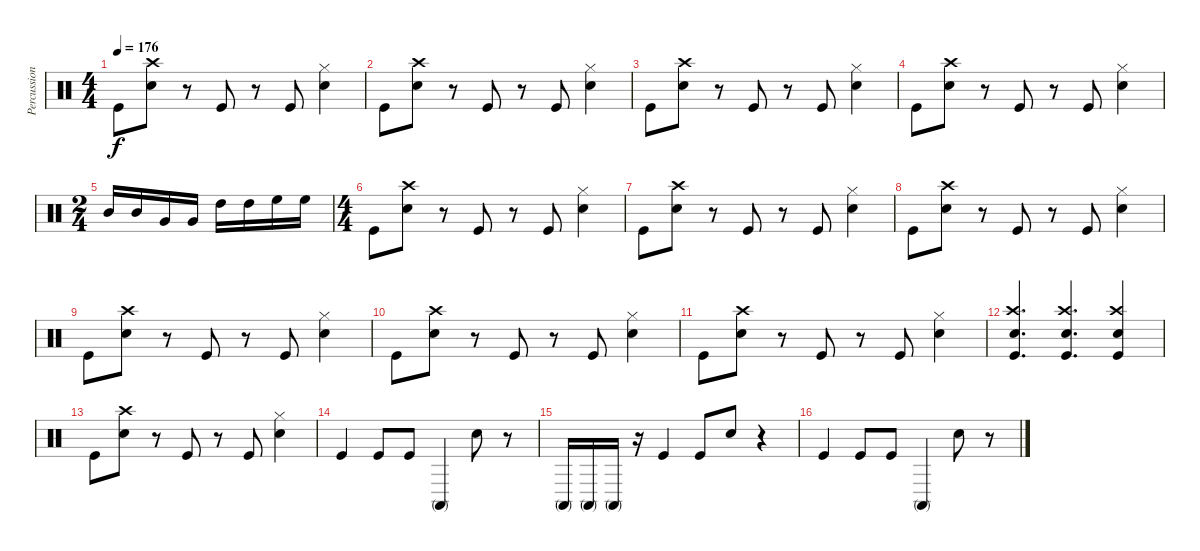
\track ("Percussions" "Percussion") {instrument percussion}
\staff {score}
\articulation defaults
\ts (4 4)
\tempo 176
\clef neutral
\ks c "Kick (hit)".8{dy f}
("Crash high (hit)" "Snare (hit) 2").8 r.8 "Kick (hit)".8 r.8 "Kick (hit)".8 ("Hi-Hat (closed)" "Snare (hit) 2").4 |
"Kick (hit)".8 ("Crash high (hit)" "Snare (hit) 2").8 r.8 "Kick (hit)".8 r.8 "Kick (hit)".8 ("Hi-Hat (closed)" "Snare (hit) 2").4 |
"Kick (hit)".8 ("Crash high (hit)" "Snare (hit) 2").8 r.8 "Kick (hit)".8 r.8 "Kick (hit)".8 ("Hi-Hat (closed)" "Snare (hit) 2").4 |
"Kick (hit)".8 ("Crash high (hit)" "Snare (hit) 2").8 r.8 "Kick (hit)".8 r.8 "Kick (hit)".8 ("Hi-Hat (closed)" "Snare (hit) 2").4 |
\ts (2 4)
"Mid Tom (hit)".16 "Mid Tom (hit)".16 "Very Low Tom (hit)".16 "Very Low Tom (hit)".16 "High Tom (hit)".16 "High Tom (hit)".16 "High Floor Tom (hit)".16 "High Floor Tom (hit)".16 |
\ts (4 4)
"Kick (hit)".8 ("Crash high (hit)" "Snare (hit) 2").8 r.8 "Kick (hit)".8 r.8 "Kick (hit)".8 ("Hi-Hat (closed)" "Snare (hit) 2").4 |
"Kick (hit)".8 ("Crash high (hit)" "Snare (hit) 2").8 r.8 "Kick (hit)".8 r.8 "Kick (hit)".8 ("Hi-Hat (closed)" "Snare (hit) 2").4 |
"Kick (hit)".8 ("Crash high (hit)" "Snare (hit) 2").8 r.8 "Kick (hit)".8 r.8 "Kick (hit)".8 ("Hi-Hat (closed)" "Snare (hit) 2").4 |
"Kick (hit)".8 ("Crash high (hit)" "Snare (hit) 2").8 r.8 "Kick (hit)".8 r.8 "Kick (hit)".8 ("Hi-Hat (closed)" "Snare (hit) 2").4 |
"Kick (hit)".8 ("Crash high (hit)" "Snare (hit) 2").8 r.8 "Kick (hit)".8 r.8 "Kick (hit)".8 ("Hi-Hat (closed)" "Snare (hit) 2").4 |
"Kick (hit)".8 ("Crash high (hit)" "Snare (hit) 2").8 r.8 "Kick (hit)".8 r.8 "Kick (hit)".8 ("Hi-Hat (closed)" "Snare (hit) 2").4 |
("Crash high (hit)" "Snare (hit) 2" "Kick (hit)").4{d} ("Crash high (hit)" "Snare (hit) 2" "Kick (hit)").4{d} ("Crash high (hit)" "Snare (hit) 2" "Kick (hit)").4 |
"Kick (hit)".8 ("Crash high (hit)" "Snare (hit) 2").8 r.8 "Kick (hit)".8 r.8 "Kick (hit)".8 ("Hi-Hat (closed)" "Snare (hit) 2").4 |
"Kick (hit)".4 "Kick (hit)".8 "Kick (hit)".8 "Conga high (mute)".4 "Snare (hit) 2".8 r.8 |
"Conga high (mute)".16 "Conga high (mute)".16 "Conga high (mute)".16 r.16 "Kick (hit)".4 "Kick (hit)".8 "Snare (hit) 2".8 r.4 |
"Kick (hit)".4 "Kick (hit)".8 "Kick (hit)".8 "Conga high (mute)".4 "Snare (hit) 2".8 r.8
